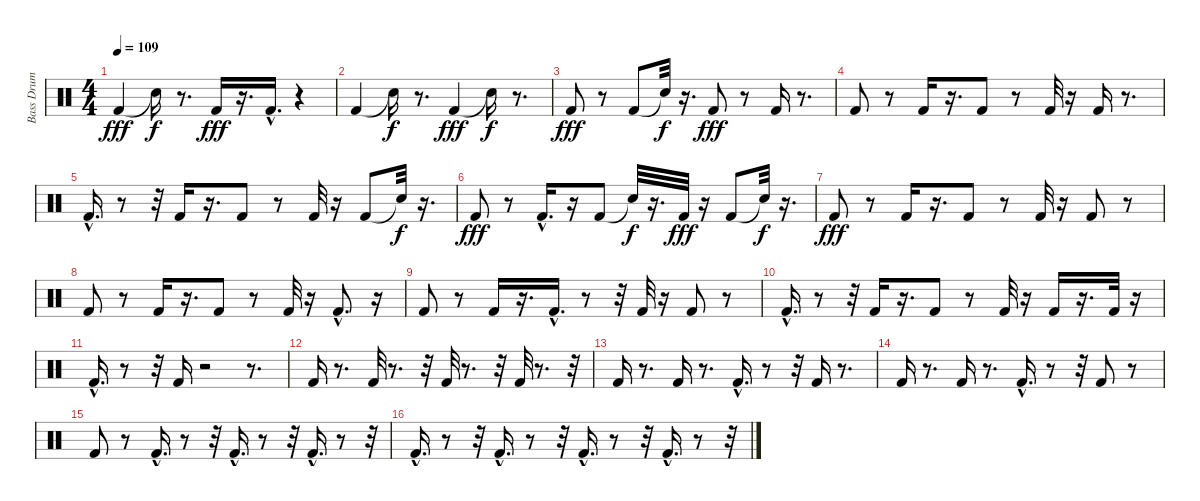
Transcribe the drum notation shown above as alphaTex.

\track ("Bass Drum       " "Bass Drum ") {instrument percussion}
\staff {score}
\articulation defaults
\ts (4 4)
\tempo 109
\clef neutral
\ks c "Kick (hit) 2".4{dy fff} "Snare (hit)"{t}.16{dy f}
r.8{d} "Kick (hit) 2".16{dy fff} r.16{d} "Kick (hit) 2"{hac}.16{d} r.4 |
"Kick (hit) 2".4 "Snare (hit)"{t}.16{dy f} r.8{d} "Kick (hit) 2".4{dy fff} "Snare (hit)"{t}.16{dy f} r.8{d} |
"Kick (hit) 2".8{dy fff} r.8 "Kick (hit) 2".8 "Snare (hit)"{t}.32{dy f} r.16{d} "Kick (hit) 2".8{dy fff} r.8 "Kick (hit) 2".16 r.8{d} |
"Kick (hit) 2".8 r.8 "Kick (hit) 2".16 r.16{d} "Kick (hit) 2".8 r.8 "Kick (hit) 2".32 r.16 "Kick (hit) 2".16 r.8{d} |
"Kick (hit) 2"{hac}.16{d} r.8 r.32 "Kick (hit) 2".16 r.16{d} "Kick (hit) 2".8 r.8 "Kick (hit) 2".32 r.16 "Kick (hit) 2".8 "Snare (hit)"{t}.32{dy f} r.16{d} |
"Kick (hit) 2".8{dy fff} r.8 "Kick (hit) 2"{hac}.16{d} r.16 "Kick (hit) 2".8 "Snare (hit)"{t}.32{dy f} r.16{d} "Kick (hit) 2".32{dy fff} r.16 "Kick (hit) 2".8 "Snare (hit)"{t}.32{dy f} r.16{d} |
"Kick (hit) 2".8{dy fff} r.8 "Kick (hit) 2".16 r.16{d} "Kick (hit) 2".8 r.8 "Kick (hit) 2".32 r.16 "Kick (hit) 2".8 r.8 |
"Kick (hit) 2".8 r.8 "Kick (hit) 2".16 r.16{d} "Kick (hit) 2".8 r.8 "Kick (hit) 2".32 r.16 "Kick (hit) 2"{hac}.8{d} r.16 |
"Kick (hit) 2".8 r.8 "Kick (hit) 2".16 r.16{d} "Kick (hit) 2"{hac}.16{d} r.8 r.32 "Kick (hit) 2".32 r.16 "Kick (hit) 2".8 r.8 |
"Kick (hit) 2"{hac}.16{d} r.8 r.32 "Kick (hit) 2".16 r.16{d} "Kick (hit) 2".8 r.8 "Kick (hit) 2".32 r.16 "Kick (hit) 2".16 r.16{d} "Kick (hit) 2".32 r.16 |
"Kick (hit) 2"{hac}.16{d} r.8 r.32 "Kick (hit) 2".16 r.2 r.8{d} |
"Kick (hit) 2".16 r.8{d} "Kick (hit) 2".32 r.8{d} r.32 "Kick (hit) 2".32 r.8{d} r.32 "Kick (hit) 2".32 r.8{d} r.32 |
"Kick (hit) 2".16 r.8{d} "Kick (hit) 2".16 r.8{d} "Kick (hit) 2"{hac}.16{d} r.8 r.32 "Kick (hit) 2".16 r.8{d} |
"Kick (hit) 2".16 r.8{d} "Kick (hit) 2".16 r.8{d} "Kick (hit) 2"{hac}.16{d} r.8 r.32 "Kick (hit) 2".8 r.8 |
"Kick (hit) 2".8 r.8 "Kick (hit) 2"{hac}.16{d} r.8 r.32 "Kick (hit) 2"{hac}.16{d} r.8 r.32 "Kick (hit) 2"{hac}.16{d} r.8 r.32 |
"Kick (hit) 2"{hac}.16{d} r.8 r.32 "Kick (hit) 2"{hac}.16{d} r.8 r.32 "Kick (hit) 2"{hac}.16{d} r.8 r.32 "Kick (hit) 2"{hac}.16{d} r.8 r.32
